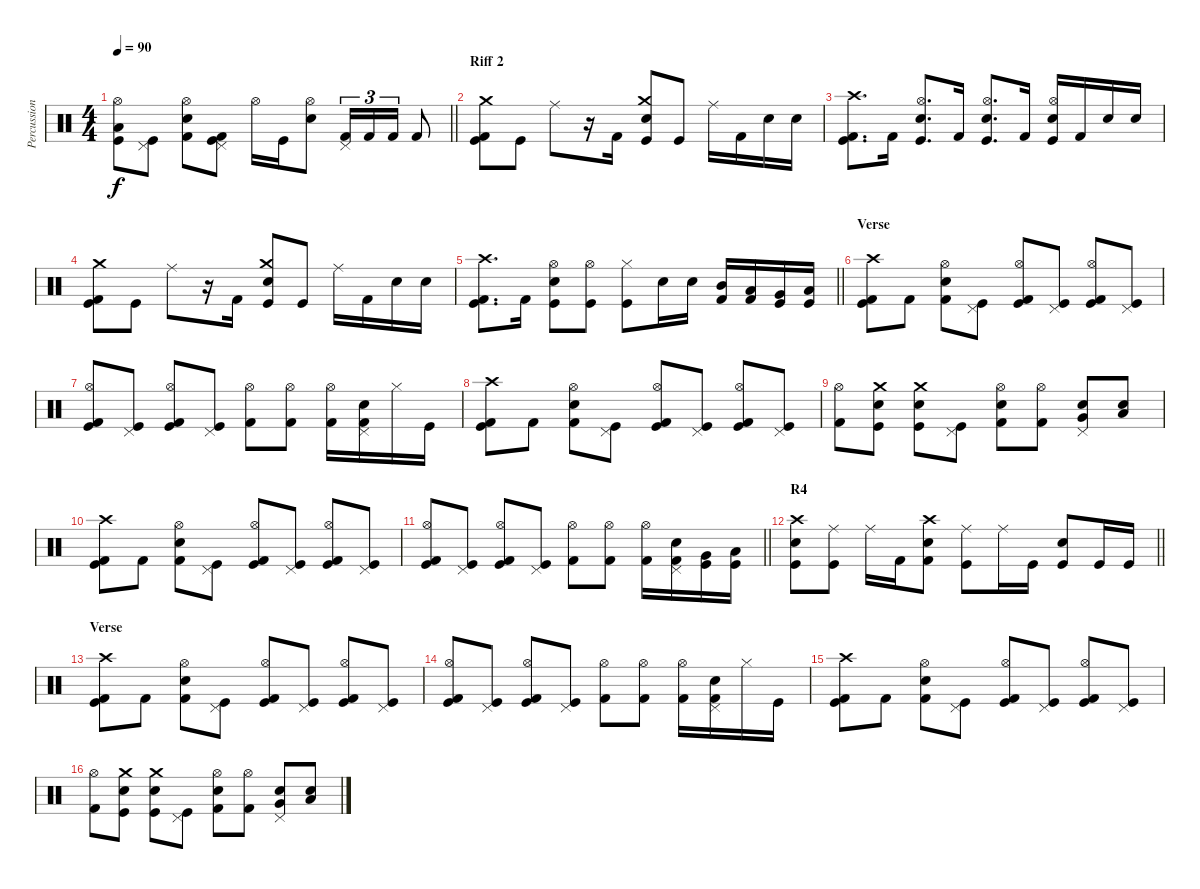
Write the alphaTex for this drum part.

\track ("Percussion" "Percussion") {instrument percussion}
\staff {score}
\articulation defaults
\ts (4 4)
\tempo 90
\clef neutral
\barLineRight lightlight
\ks c
("Kick (hit)" "Low Floor Tom (hit)" "Hi-Hat (open)").8{dy f} ("Kick (hit)" "Pedal Hi-Hat (hit)").8 ("Kick (hit) 2" "Snare (hit) 2" "Hi-Hat (open)").8 ("Kick (hit)" "Kick (hit) 2" "Pedal Hi-Hat (hit)").8 "Hi-Hat (open)".16 "Kick (hit)".16 ("Snare (hit) 2" "Hi-Hat (open)").8 ("Kick (hit) 2" "Pedal Hi-Hat (hit)").16{tu (3 2)} "Kick (hit) 2".16{tu (3 2)} "Kick (hit) 2".16{tu (3 2)} "Kick (hit) 2".8 |
\section ("" "Riff 2")
("Kick (hit)" "Kick (hit) 2" "Crash medium (hit)").8 "Kick (hit)".8 "Ride (middle)".8 r.16 "Kick (hit) 2".16 ("Kick (hit)" "Electric Snare (hit)" "Crash medium (hit)").8 "Kick (hit)".8 "Ride (middle)".16 "Kick (hit) 2".16 "Electric Snare (hit)".16 "Electric Snare (hit)".16 |
("Kick (hit)" "Kick (hit) 2" "Crash high (hit)").8{d} "Kick (hit) 2".16 ("Kick (hit)" "Snare (hit) 2" "Hi-Hat (open)").8{d} "Kick (hit) 2".16 ("Kick (hit)" "Snare (hit) 2" "Hi-Hat (open)").8{d} "Kick (hit) 2".16 ("Kick (hit)" "Snare (hit) 2" "Hi-Hat (open)").16 "Kick (hit) 2".16 "Electric Snare (hit)".16 "Electric Snare (hit)".16 |
("Kick (hit)" "Kick (hit) 2" "Crash medium (hit)").8 "Kick (hit)".8 "Ride (middle)".8 r.16 "Kick (hit) 2".16 ("Kick (hit)" "Electric Snare (hit)" "Crash medium (hit)").8 "Kick (hit)".8 "Ride (middle)".16 "Kick (hit) 2".16 "Electric Snare (hit)".16 "Electric Snare (hit)".16 |
\barLineRight lightlight
("Kick (hit)" "Kick (hit) 2" "Crash high (hit)").8{d} "Kick (hit) 2".16 ("Kick (hit)" "Snare (hit) 2" "Hi-Hat (open)").8 ("Kick (hit)" "Hi-Hat (open)").8 ("Kick (hit)" "Hi-Hat (closed)").8 "Electric Snare (hit)".16 "Electric Snare (hit)".16 ("Kick (hit) 2" "Mid Tom (hit)").16 ("Kick (hit) 2" "Low Tom (hit)").16 ("Kick (hit)" "Very Low Tom (hit)").16 ("Kick (hit)" "Low Floor Tom (hit)").16 |
\section ("" "Verse")
("Kick (hit)" "Kick (hit) 2" "Crash high (hit)").8 "Kick (hit) 2".8 ("Kick (hit) 2" "Electric Snare (hit)" "Hi-Hat (open)").8 ("Kick (hit)" "Pedal Hi-Hat (hit)").8 ("Kick (hit)" "Kick (hit) 2" "Hi-Hat (open)").8 ("Kick (hit)" "Pedal Hi-Hat (hit)").8 ("Kick (hit)" "Kick (hit) 2" "Hi-Hat (open)").8 ("Kick (hit)" "Pedal Hi-Hat (hit)").8 |
("Kick (hit)" "Kick (hit) 2" "Hi-Hat (open)").8 ("Kick (hit)" "Pedal Hi-Hat (hit)").8 ("Kick (hit)" "Kick (hit) 2" "Hi-Hat (open)").8 ("Kick (hit)" "Pedal Hi-Hat (hit)").8 ("Kick (hit) 2" "Hi-Hat (open)").8 ("Kick (hit) 2" "Hi-Hat (open)").8 ("Kick (hit) 2" "Hi-Hat (open)").16 ("Kick (hit) 2" "Electric Snare (hit)" "Pedal Hi-Hat (hit)").16 "Hi-Hat (closed)".16 "Kick (hit)".16 |
("Kick (hit)" "Kick (hit) 2" "Crash high (hit)").8 "Kick (hit) 2".8 ("Kick (hit) 2" "Electric Snare (hit)" "Hi-Hat (open)").8 ("Kick (hit)" "Pedal Hi-Hat (hit)").8 ("Kick (hit)" "Kick (hit) 2" "Hi-Hat (open)").8 ("Kick (hit)" "Pedal Hi-Hat (hit)").8 ("Kick (hit)" "Kick (hit) 2" "Hi-Hat (open)").8 ("Kick (hit)" "Pedal Hi-Hat (hit)").8 |
("Kick (hit) 2" "Hi-Hat (open)").8 ("Kick (hit)" "Snare (hit) 2" "Crash medium (hit)").8 ("Kick (hit)" "Snare (hit) 2" "Crash medium (hit)").8 ("Kick (hit)" "Pedal Hi-Hat (hit)").8 ("Kick (hit) 2" "Electric Snare (hit)" "Hi-Hat (open)").8 ("Kick (hit) 2" "Hi-Hat (open)").8 ("Very Low Tom (hit)" "Electric Snare (hit)" "Pedal Hi-Hat (hit)").8 ("Low Floor Tom (hit)" "Electric Snare (hit)").8 |
("Kick (hit)" "Kick (hit) 2" "Crash high (hit)").8 "Kick (hit) 2".8 ("Kick (hit) 2" "Electric Snare (hit)" "Hi-Hat (open)").8 ("Kick (hit)" "Pedal Hi-Hat (hit)").8 ("Kick (hit)" "Kick (hit) 2" "Hi-Hat (open)").8 ("Kick (hit)" "Pedal Hi-Hat (hit)").8 ("Kick (hit)" "Kick (hit) 2" "Hi-Hat (open)").8 ("Kick (hit)" "Pedal Hi-Hat (hit)").8 |
\barLineRight lightlight
("Kick (hit)" "Kick (hit) 2" "Hi-Hat (open)").8 ("Kick (hit)" "Pedal Hi-Hat (hit)").8 ("Kick (hit)" "Kick (hit) 2" "Hi-Hat (open)").8 ("Kick (hit)" "Pedal Hi-Hat (hit)").8 ("Kick (hit) 2" "Hi-Hat (open)").8 ("Kick (hit) 2" "Hi-Hat (open)").8 ("Kick (hit) 2" "Hi-Hat (open)").16 ("Kick (hit) 2" "Electric Snare (hit)" "Pedal Hi-Hat (hit)").16 ("Kick (hit)" "Very Low Tom (hit)").16 ("Kick (hit)" "Low Floor Tom (hit)").16 |
\section ("" "R4")
\barLineRight lightlight
("Kick (hit)" "Snare (hit) 2" "Crash high (hit)").8 ("Kick (hit)" "Ride (middle)").8 "Ride (middle)".16 "Kick (hit) 2".16 ("Kick (hit) 2" "Snare (hit) 2" "Crash high (hit)").8 ("Kick (hit)" "Ride (middle)").8 "Ride (middle)".16 "Kick (hit)".16 ("Kick (hit)" "Snare (hit) 2").8 "Kick (hit)".16 "Kick (hit)".16 |
\section ("" "Verse")
("Kick (hit)" "Kick (hit) 2" "Crash high (hit)").8 "Kick (hit) 2".8 ("Kick (hit) 2" "Electric Snare (hit)" "Hi-Hat (open)").8 ("Kick (hit)" "Pedal Hi-Hat (hit)").8 ("Kick (hit)" "Kick (hit) 2" "Hi-Hat (open)").8 ("Kick (hit)" "Pedal Hi-Hat (hit)").8 ("Kick (hit)" "Kick (hit) 2" "Hi-Hat (open)").8 ("Kick (hit)" "Pedal Hi-Hat (hit)").8 |
("Kick (hit)" "Kick (hit) 2" "Hi-Hat (open)").8 ("Kick (hit)" "Pedal Hi-Hat (hit)").8 ("Kick (hit)" "Kick (hit) 2" "Hi-Hat (open)").8 ("Kick (hit)" "Pedal Hi-Hat (hit)").8 ("Kick (hit) 2" "Hi-Hat (open)").8 ("Kick (hit) 2" "Hi-Hat (open)").8 ("Kick (hit) 2" "Hi-Hat (open)").16 ("Kick (hit) 2" "Electric Snare (hit)" "Pedal Hi-Hat (hit)").16 "Hi-Hat (closed)".16 "Kick (hit)".16 |
("Kick (hit)" "Kick (hit) 2" "Crash high (hit)").8 "Kick (hit) 2".8 ("Kick (hit) 2" "Electric Snare (hit)" "Hi-Hat (open)").8 ("Kick (hit)" "Pedal Hi-Hat (hit)").8 ("Kick (hit)" "Kick (hit) 2" "Hi-Hat (open)").8 ("Kick (hit)" "Pedal Hi-Hat (hit)").8 ("Kick (hit)" "Kick (hit) 2" "Hi-Hat (open)").8 ("Kick (hit)" "Pedal Hi-Hat (hit)").8 |
("Kick (hit) 2" "Hi-Hat (open)").8 ("Kick (hit)" "Snare (hit) 2" "Crash medium (hit)").8 ("Kick (hit)" "Snare (hit) 2" "Crash medium (hit)").8 ("Kick (hit)" "Pedal Hi-Hat (hit)").8 ("Kick (hit) 2" "Electric Snare (hit)" "Hi-Hat (open)").8 ("Kick (hit) 2" "Hi-Hat (open)").8 ("Very Low Tom (hit)" "Electric Snare (hit)" "Pedal Hi-Hat (hit)").8 ("Low Floor Tom (hit)" "Electric Snare (hit)").8
